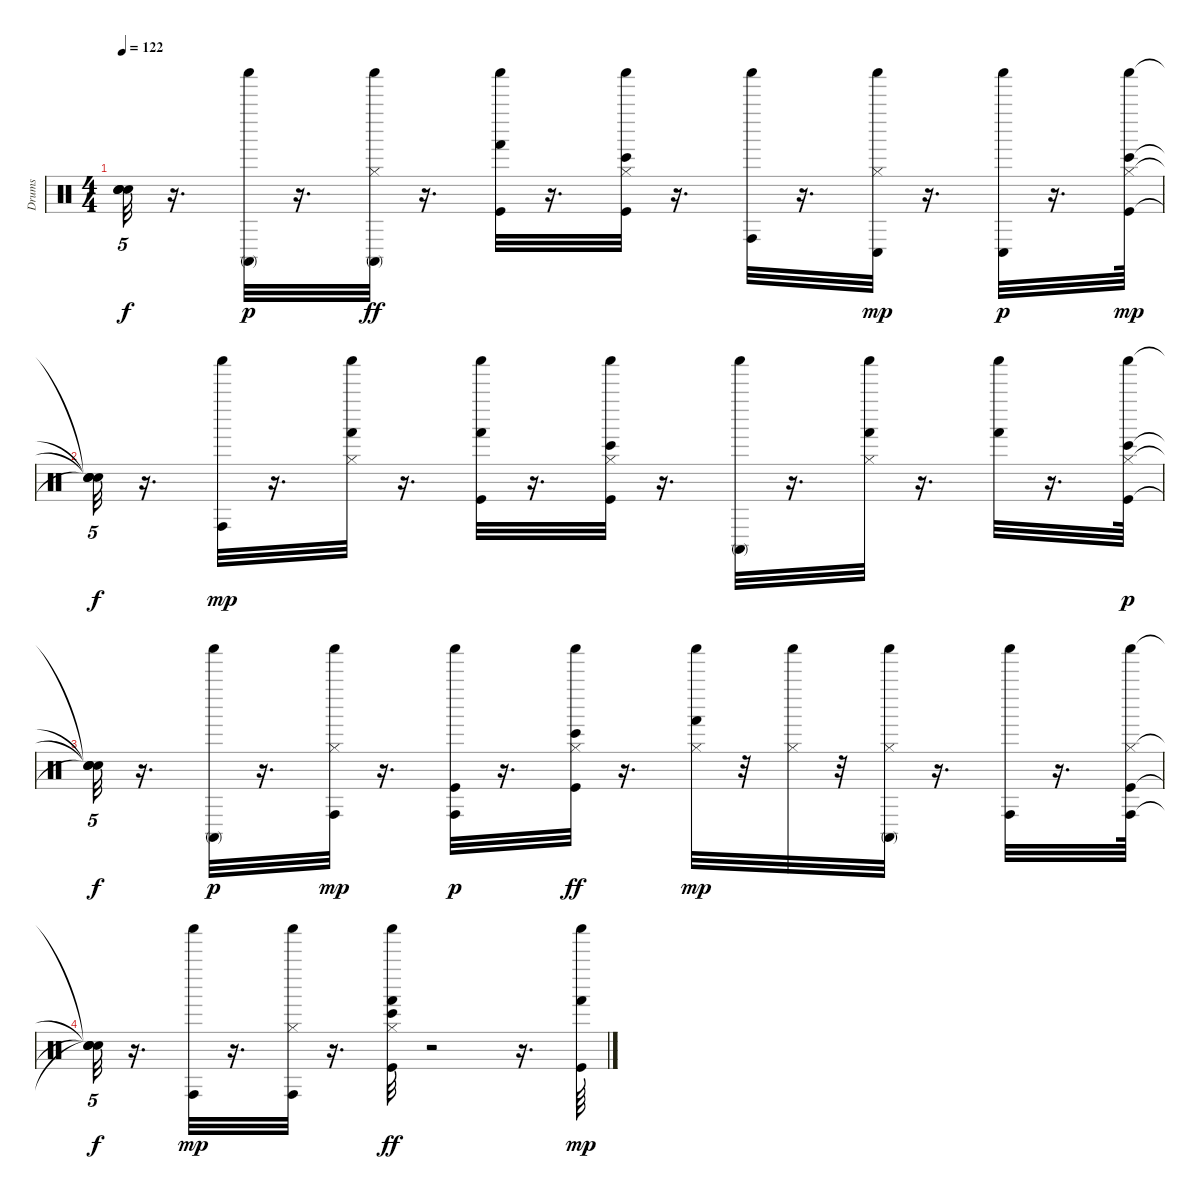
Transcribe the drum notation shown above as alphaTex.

\track ("Drums" "Drums") {instrument percussion}
\staff {score}
\articulation defaults
\ts (4 4)
\tempo 122
\clef neutral
\ks c
("Snare (hit)"{t} "Snare (hit)"{t} "Snare (hit)"{t} "Snare (hit)"{t}).32{tu (5 4) dy f} r.16{d} ("Conga high (mute)" "Shaker (hit)").32{dy p} r.16{d} ("Hi-Hat (closed)" "Shaker (hit)" "Conga high (mute)").32{dy ff} r.16{d} ("Shaker (hit)" "Kick (hit)" "Hand (hit)").32 r.16{d} ("Hi-Hat (closed)" "Bongo High (hit)" "Shaker (hit)" "Kick (hit)").32 r.16{d} ("Shaker (hit)" "Conga high (hit)").32 r.16{d} ("Hi-Hat (closed)" "Conga low (hit)" "Shaker (hit)").32{dy mp} r.16{d} ("Conga low (hit)" "Shaker (hit)").32{dy p} r.16{d} ("Hi-Hat (closed)" "Bongo High (hit)" "Shaker (hit)" "Kick (hit)").64{dy mp} |
("Snare (hit)"{t} "Snare (hit)"{t} "Snare (hit)"{t} "Snare (hit)"{t}).32{tu (5 4) dy f} r.16{d} ("Conga high (hit)" "Shaker (hit)").32{dy mp} r.16{d} ("Hi-Hat (closed)" "Hand (hit)" "Shaker (hit)").32 r.16{d} ("Hand (hit)" "Shaker (hit)" "Kick (hit)").32 r.16{d} ("Hi-Hat (closed)" "Bongo High (hit)" "Shaker (hit)" "Kick (hit)").32 r.16{d} ("Conga high (mute)" "Shaker (hit)").32 r.16{d} ("Hi-Hat (closed)" "Hand (hit)" "Shaker (hit)").32 r.16{d} ("Hand (hit)" "Shaker (hit)").32 r.16{d} ("Bongo High (hit)" "Kick (hit)" "Hi-Hat (closed)" "Shaker (hit)").64{dy p} |
("Snare (hit)"{t} "Snare (hit)"{t} "Snare (hit)"{t} "Snare (hit)"{t}).32{tu (5 4) dy f} r.16{d} ("Conga high (mute)" "Shaker (hit)").32{dy p} r.16{d} ("Hi-Hat (closed)" "Conga high (hit)" "Shaker (hit)").32{dy mp} r.16{d} ("Conga high (hit)" "Shaker (hit)" "Kick (hit)").32{dy p} r.16{d} ("Hi-Hat (closed)" "Bongo High (hit)" "Shaker (hit)" "Kick (hit)").32{dy ff} r.16{d} ("Hand (hit)" "Shaker (hit)" "Hi-Hat (closed)").32{dy mp} r.32 ("Hi-Hat (closed)" "Shaker (hit)").32 r.32 ("Hi-Hat (closed)" "Conga high (mute)" "Shaker (hit)").32 r.16{d} ("Conga high (hit)" "Shaker (hit)").32 r.16{d} ("Conga high (hit)" "Shaker (hit)" "Kick (hit)" "Hi-Hat (closed)").64 |
("Snare (hit)"{t} "Snare (hit)"{t} "Snare (hit)"{t} "Snare (hit)"{t}).32{tu (5 4) dy f} r.16{d} ("Conga high (hit)" "Shaker (hit)").32{dy mp} r.16{d} ("Conga high (hit)" "Shaker (hit)" "Hi-Hat (closed)").32 r.16{d} ("Hand (hit)" "Shaker (hit)" "Kick (hit)" "Hi-Hat (closed)" "Bongo High (hit)").32{dy ff} r.2 r.16{d} ("Kick (hit)" "Hand (hit)" "Shaker (hit)").64{dy mp}
